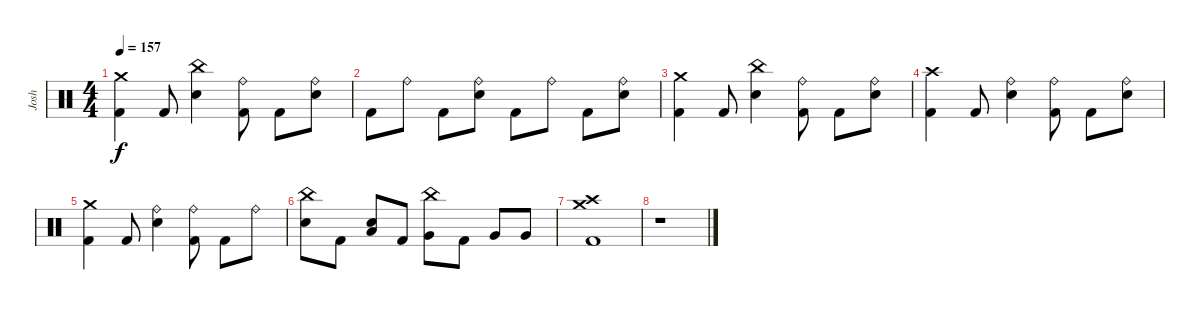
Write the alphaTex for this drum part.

\track ("Josh" "Josh") {instrument percussion}
\staff {score}
\articulation defaults
\ts (4 4)
\tempo 157
\clef neutral
\ks c
("Crash medium (hit)" "Kick (hit) 2").4{dy f} "Kick (hit) 2".8 ("China (hit)" "Electric Snare (hit)").4 ("Ride (bell)" "Kick (hit) 2").8 "Kick (hit) 2".8 ("Ride (bell)" "Electric Snare (hit)").8 |
"Kick (hit) 2".8 "Ride (bell)".8 "Kick (hit) 2".8 ("Ride (bell)" "Electric Snare (hit)").8 "Kick (hit) 2".8 "Ride (bell)".8 "Kick (hit) 2".8 ("Ride (bell)" "Electric Snare (hit)").8 |
("Crash medium (hit)" "Kick (hit) 2").4 "Kick (hit) 2".8 ("China (hit)" "Electric Snare (hit)").4 ("Ride (bell)" "Kick (hit) 2").8 "Kick (hit) 2".8 ("Ride (bell)" "Electric Snare (hit)").8 |
("Crash high (hit)" "Kick (hit) 2").4 "Kick (hit) 2".8 ("Ride (bell)" "Electric Snare (hit)").4 ("Ride (bell)" "Kick (hit) 2").8 "Kick (hit) 2".8 ("Ride (bell)" "Electric Snare (hit)").8 |
("Crash medium (hit)" "Kick (hit) 2").4 "Kick (hit) 2".8 ("Ride (bell)" "Electric Snare (hit)").4 ("Ride (bell)" "Kick (hit) 2").8 "Kick (hit) 2".8 "Ride (bell)".8 |
("China (hit)" "Electric Snare (hit)").8 "Kick (hit) 2".8 ("Low Tom (hit)" "Electric Snare (hit)").8 "Kick (hit) 2".8 ("China (hit)" "Very Low Tom (hit)").8 "Kick (hit) 2".8 "Very Low Tom (hit)".8 "Very Low Tom (hit)".8 |
("Crash high (hit)" "Crash medium (hit)" "Kick (hit) 2").1 |
r.1
